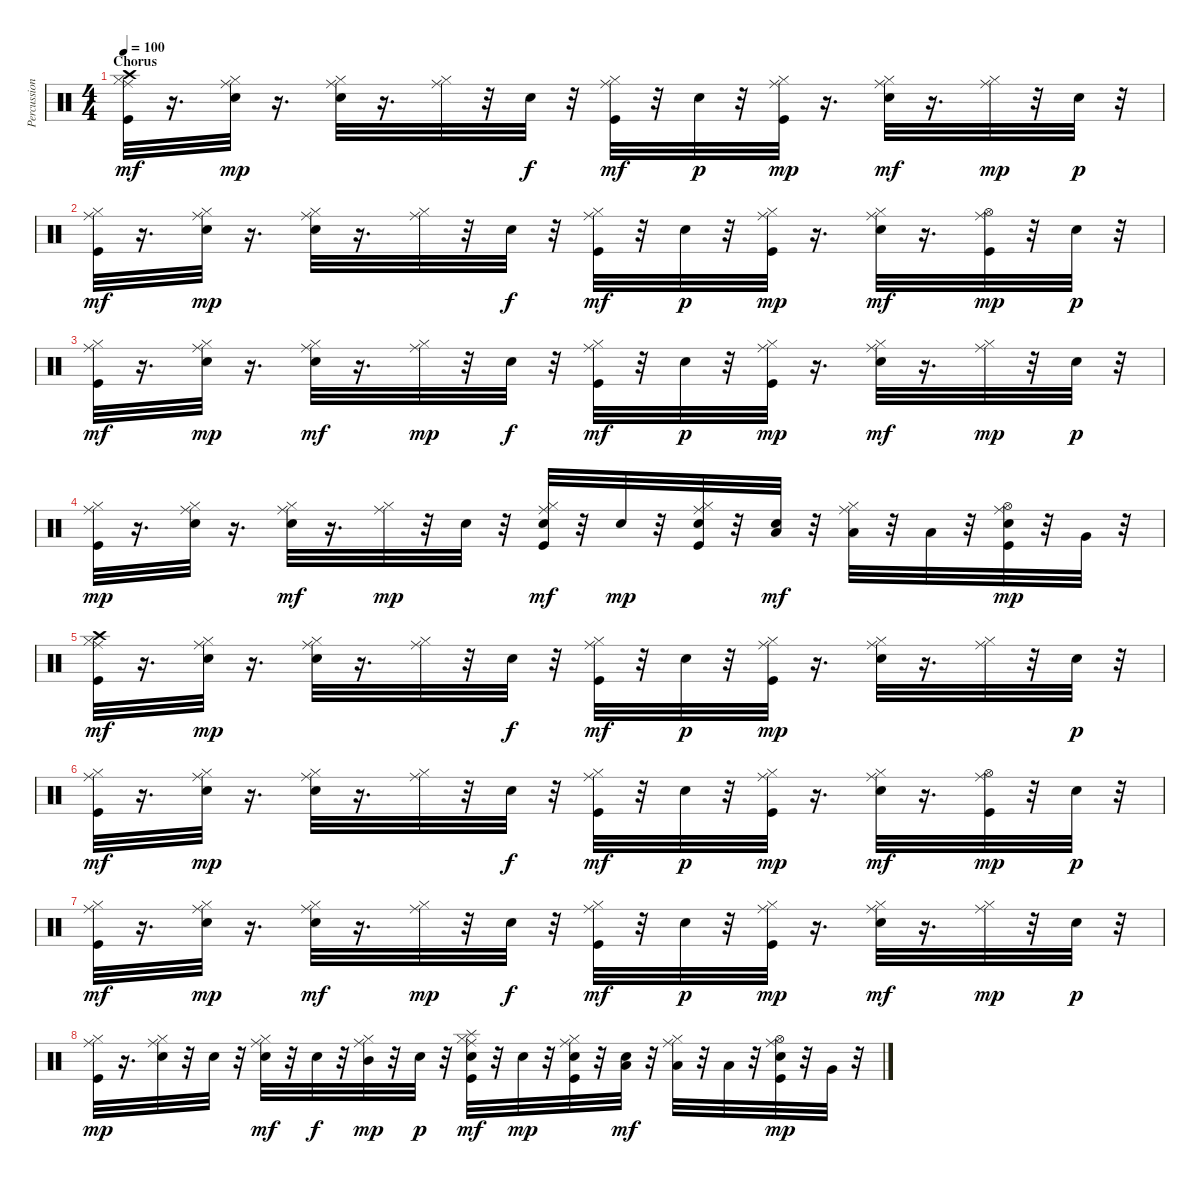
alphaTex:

\track ("Percussions" "Percussion") {instrument percussion}
\staff {score}
\articulation defaults
\ts (4 4)
\section ("" "Chorus")
\tempo 100
\clef neutral
\ks c
("Kick (hit)" "Hi-Hat (closed)" "Crash high (hit)" "Ride (middle)").32{dy mf} r.16{d} ("Electric Snare (hit)" "Hi-Hat (closed)" "Ride (middle)").32{dy mp} r.16{d} ("Electric Snare (hit)" "Hi-Hat (closed)" "Ride (middle)").32 r.16{d} ("Hi-Hat (closed)" "Ride (middle)").32 r.32 "Electric Snare (hit)".32{dy f} r.32 ("Kick (hit)" "Hi-Hat (closed)" "Ride (middle)").32{dy mf} r.32 "Electric Snare (hit)".32{dy p} r.32 ("Kick (hit)" "Hi-Hat (closed)" "Ride (middle)").32{dy mp} r.16{d} ("Electric Snare (hit)" "Hi-Hat (closed)" "Ride (middle)").32{dy mf} r.16{d} ("Hi-Hat (closed)" "Ride (middle)").32{dy mp} r.32 "Electric Snare (hit)".32{dy p} r.32 |
("Kick (hit)" "Hi-Hat (closed)" "Ride (middle)").32{dy mf} r.16{d} ("Electric Snare (hit)" "Hi-Hat (closed)" "Ride (middle)").32{dy mp} r.16{d} ("Electric Snare (hit)" "Hi-Hat (closed)" "Ride (middle)").32 r.16{d} ("Hi-Hat (closed)" "Ride (middle)").32 r.32 "Electric Snare (hit)".32{dy f} r.32 ("Kick (hit)" "Hi-Hat (closed)" "Ride (middle)").32{dy mf} r.32 "Electric Snare (hit)".32{dy p} r.32 ("Kick (hit)" "Hi-Hat (closed)" "Ride (middle)").32{dy mp} r.16{d} ("Electric Snare (hit)" "Hi-Hat (closed)" "Ride (middle)").32{dy mf} r.16{d} ("Kick (hit)" "Hi-Hat (open)" "Ride (middle)").32{dy mp} r.32 "Electric Snare (hit)".32{dy p} r.32 |
("Kick (hit)" "Hi-Hat (closed)" "Ride (middle)").32{dy mf} r.16{d} ("Electric Snare (hit)" "Hi-Hat (closed)" "Ride (middle)").32{dy mp} r.16{d} ("Electric Snare (hit)" "Hi-Hat (closed)" "Ride (middle)").32{dy mf} r.16{d} ("Hi-Hat (closed)" "Ride (middle)").32{dy mp} r.32 "Electric Snare (hit)".32{dy f} r.32 ("Kick (hit)" "Hi-Hat (closed)" "Ride (middle)").32{dy mf} r.32 "Electric Snare (hit)".32{dy p} r.32 ("Kick (hit)" "Hi-Hat (closed)" "Ride (middle)").32{dy mp} r.16{d} ("Electric Snare (hit)" "Hi-Hat (closed)" "Ride (middle)").32{dy mf} r.16{d} ("Hi-Hat (closed)" "Ride (middle)").32{dy mp} r.32 "Electric Snare (hit)".32{dy p} r.32 |
("Kick (hit)" "Hi-Hat (closed)" "Ride (middle)").32{dy mp} r.16{d} ("Electric Snare (hit)" "Hi-Hat (closed)" "Ride (middle)").32 r.16{d} ("Electric Snare (hit)" "Hi-Hat (closed)" "Ride (middle)").32{dy mf} r.16{d} ("Hi-Hat (closed)" "Ride (middle)").32{dy mp} r.32 "Electric Snare (hit)".32 r.32 ("Kick (hit)" "Electric Snare (hit)" "Hi-Hat (closed)" "Ride (middle)").32{dy mf} r.32 "Electric Snare (hit)".32{dy mp} r.32 ("Kick (hit)" "Electric Snare (hit)" "Hi-Hat (closed)" "Ride (middle)").32 r.32 ("Electric Snare (hit)" "Low Tom (hit)").32{dy mf} r.32 ("Hi-Hat (closed)" "Low Tom (hit)" "Ride (middle)").32 r.32 "Low Tom (hit)".32 r.32 ("Kick (hit)" "Electric Snare (hit)" "Hi-Hat (open)" "Ride (middle)").32{dy mp} r.32 "Very Low Tom (hit)".32 r.32 |
("Kick (hit)" "Hi-Hat (closed)" "Crash high (hit)" "Ride (middle)").32{dy mf} r.16{d} ("Electric Snare (hit)" "Hi-Hat (closed)" "Ride (middle)").32{dy mp} r.16{d} ("Electric Snare (hit)" "Hi-Hat (closed)" "Ride (middle)").32 r.16{d} ("Hi-Hat (closed)" "Ride (middle)").32 r.32 "Electric Snare (hit)".32{dy f} r.32 ("Kick (hit)" "Hi-Hat (closed)" "Ride (middle)").32{dy mf} r.32 "Electric Snare (hit)".32{dy p} r.32 ("Kick (hit)" "Hi-Hat (closed)" "Ride (middle)").32{dy mp} r.16{d} ("Electric Snare (hit)" "Hi-Hat (closed)" "Ride (middle)").32 r.16{d} ("Hi-Hat (closed)" "Ride (middle)").32 r.32 "Electric Snare (hit)".32{dy p} r.32 |
("Kick (hit)" "Hi-Hat (closed)" "Ride (middle)").32{dy mf} r.16{d} ("Electric Snare (hit)" "Hi-Hat (closed)" "Ride (middle)").32{dy mp} r.16{d} ("Electric Snare (hit)" "Hi-Hat (closed)" "Ride (middle)").32 r.16{d} ("Hi-Hat (closed)" "Ride (middle)").32 r.32 "Electric Snare (hit)".32{dy f} r.32 ("Kick (hit)" "Hi-Hat (closed)" "Ride (middle)").32{dy mf} r.32 "Electric Snare (hit)".32{dy p} r.32 ("Kick (hit)" "Hi-Hat (closed)" "Ride (middle)").32{dy mp} r.16{d} ("Electric Snare (hit)" "Hi-Hat (closed)" "Ride (middle)").32{dy mf} r.16{d} ("Kick (hit)" "Hi-Hat (open)" "Ride (middle)").32{dy mp} r.32 "Electric Snare (hit)".32{dy p} r.32 |
("Kick (hit)" "Hi-Hat (closed)" "Ride (middle)").32{dy mf} r.16{d} ("Electric Snare (hit)" "Hi-Hat (closed)" "Ride (middle)").32{dy mp} r.16{d} ("Electric Snare (hit)" "Hi-Hat (closed)" "Ride (middle)").32{dy mf} r.16{d} ("Hi-Hat (closed)" "Ride (middle)").32{dy mp} r.32 "Electric Snare (hit)".32{dy f} r.32 ("Kick (hit)" "Hi-Hat (closed)" "Ride (middle)").32{dy mf} r.32 "Electric Snare (hit)".32{dy p} r.32 ("Kick (hit)" "Hi-Hat (closed)" "Ride (middle)").32{dy mp} r.16{d} ("Electric Snare (hit)" "Hi-Hat (closed)" "Ride (middle)").32{dy mf} r.16{d} ("Hi-Hat (closed)" "Ride (middle)").32{dy mp} r.32 "Electric Snare (hit)".32{dy p} r.32 |
("Kick (hit)" "Hi-Hat (closed)" "Ride (middle)").32{dy mp} r.16{d} ("Electric Snare (hit)" "Hi-Hat (closed)" "Ride (middle)").32 r.32 "Electric Snare (hit)".32 r.32 ("Electric Snare (hit)" "Hi-Hat (closed)" "Ride (middle)").32{dy mf} r.32 "Electric Snare (hit)".32{dy f} r.32 ("Hi-Hat (closed)" "Mid Tom (hit)" "Ride (middle)").32{dy mp} r.32 "Electric Snare (hit)".32{dy p} r.32 ("Kick (hit)" "Electric Snare (hit)" "Hi-Hat (closed)" "Ride (middle)" "Splash (hit)").32{dy mf} r.32 "Electric Snare (hit)".32{dy mp} r.32 ("Kick (hit)" "Electric Snare (hit)" "Hi-Hat (closed)" "Ride (middle)").32 r.32 ("Electric Snare (hit)" "Low Tom (hit)").32{dy mf} r.32 ("Hi-Hat (closed)" "Low Tom (hit)" "Ride (middle)").32 r.32 "Low Tom (hit)".32 r.32 ("Kick (hit)" "Electric Snare (hit)" "Hi-Hat (open)" "Ride (middle)").32{dy mp} r.32 "Very Low Tom (hit)".32 r.32
